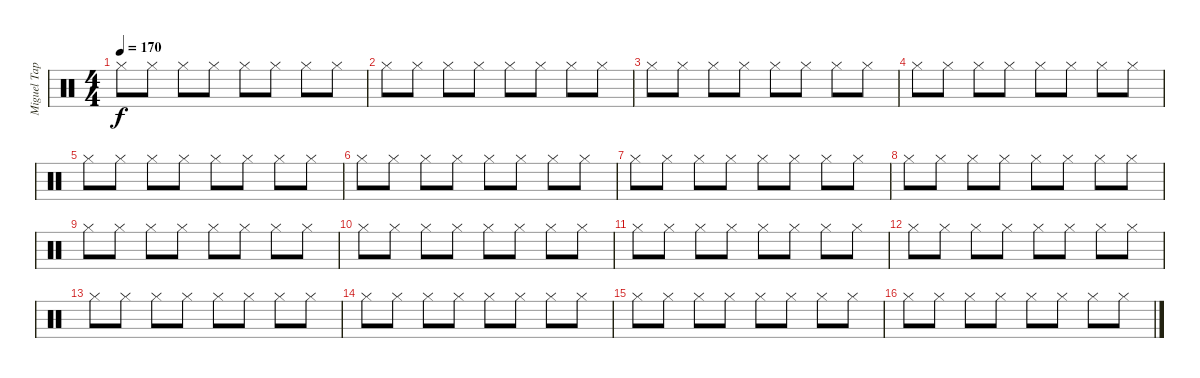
\track ("Miguel Tapia" "Miguel Tap") {instrument percussion}
\staff {score}
\articulation defaults
\ts (4 4)
\tempo 170
\clef neutral
\ks c "Hi-Hat (closed)".8{dy f} "Hi-Hat (closed)".8 "Hi-Hat (closed)".8 "Hi-Hat (closed)".8 "Hi-Hat (closed)".8 "Hi-Hat (closed)".8 "Hi-Hat (closed)".8 "Hi-Hat (closed)".8
|
"Hi-Hat (closed)".8 "Hi-Hat (closed)".8 "Hi-Hat (closed)".8 "Hi-Hat (closed)".8 "Hi-Hat (closed)".8 "Hi-Hat (closed)".8 "Hi-Hat (closed)".8 "Hi-Hat (closed)".8 |
"Hi-Hat (closed)".8 "Hi-Hat (closed)".8 "Hi-Hat (closed)".8 "Hi-Hat (closed)".8 "Hi-Hat (closed)".8 "Hi-Hat (closed)".8 "Hi-Hat (closed)".8 "Hi-Hat (closed)".8 |
"Hi-Hat (closed)".8 "Hi-Hat (closed)".8 "Hi-Hat (closed)".8 "Hi-Hat (closed)".8 "Hi-Hat (closed)".8 "Hi-Hat (closed)".8 "Hi-Hat (closed)".8 "Hi-Hat (closed)".8 |
"Hi-Hat (closed)".8 "Hi-Hat (closed)".8 "Hi-Hat (closed)".8 "Hi-Hat (closed)".8 "Hi-Hat (closed)".8 "Hi-Hat (closed)".8 "Hi-Hat (closed)".8 "Hi-Hat (closed)".8 |
"Hi-Hat (closed)".8 "Hi-Hat (closed)".8 "Hi-Hat (closed)".8 "Hi-Hat (closed)".8 "Hi-Hat (closed)".8 "Hi-Hat (closed)".8 "Hi-Hat (closed)".8 "Hi-Hat (closed)".8 |
"Hi-Hat (closed)".8 "Hi-Hat (closed)".8 "Hi-Hat (closed)".8 "Hi-Hat (closed)".8 "Hi-Hat (closed)".8 "Hi-Hat (closed)".8 "Hi-Hat (closed)".8 "Hi-Hat (closed)".8 |
"Hi-Hat (closed)".8 "Hi-Hat (closed)".8 "Hi-Hat (closed)".8 "Hi-Hat (closed)".8 "Hi-Hat (closed)".8 "Hi-Hat (closed)".8 "Hi-Hat (closed)".8 "Hi-Hat (closed)".8 |
"Hi-Hat (closed)".8 "Hi-Hat (closed)".8 "Hi-Hat (closed)".8 "Hi-Hat (closed)".8 "Hi-Hat (closed)".8 "Hi-Hat (closed)".8 "Hi-Hat (closed)".8 "Hi-Hat (closed)".8 |
"Hi-Hat (closed)".8 "Hi-Hat (closed)".8 "Hi-Hat (closed)".8 "Hi-Hat (closed)".8 "Hi-Hat (closed)".8 "Hi-Hat (closed)".8 "Hi-Hat (closed)".8 "Hi-Hat (closed)".8 |
"Hi-Hat (closed)".8 "Hi-Hat (closed)".8 "Hi-Hat (closed)".8 "Hi-Hat (closed)".8 "Hi-Hat (closed)".8 "Hi-Hat (closed)".8 "Hi-Hat (closed)".8 "Hi-Hat (closed)".8 |
"Hi-Hat (closed)".8 "Hi-Hat (closed)".8 "Hi-Hat (closed)".8 "Hi-Hat (closed)".8 "Hi-Hat (closed)".8 "Hi-Hat (closed)".8 "Hi-Hat (closed)".8 "Hi-Hat (closed)".8 |
"Hi-Hat (closed)".8 "Hi-Hat (closed)".8 "Hi-Hat (closed)".8 "Hi-Hat (closed)".8 "Hi-Hat (closed)".8 "Hi-Hat (closed)".8 "Hi-Hat (closed)".8 "Hi-Hat (closed)".8 |
"Hi-Hat (closed)".8 "Hi-Hat (closed)".8 "Hi-Hat (closed)".8 "Hi-Hat (closed)".8 "Hi-Hat (closed)".8 "Hi-Hat (closed)".8 "Hi-Hat (closed)".8 "Hi-Hat (closed)".8 |
"Hi-Hat (closed)".8 "Hi-Hat (closed)".8 "Hi-Hat (closed)".8 "Hi-Hat (closed)".8 "Hi-Hat (closed)".8 "Hi-Hat (closed)".8 "Hi-Hat (closed)".8 "Hi-Hat (closed)".8 |
"Hi-Hat (closed)".8 "Hi-Hat (closed)".8 "Hi-Hat (closed)".8 "Hi-Hat (closed)".8 "Hi-Hat (closed)".8 "Hi-Hat (closed)".8 "Hi-Hat (closed)".8 "Hi-Hat (closed)".8
